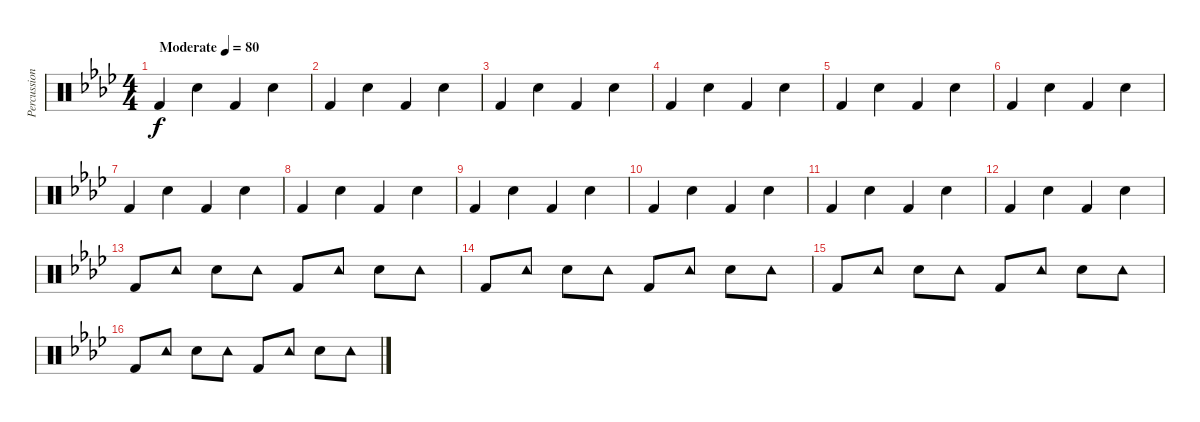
\track ("Percussions" "Percussion") {instrument percussion}
\staff {score}
\articulation defaults
\ts (4 4)
\tempo (80 "Moderate")
\clef neutral
\ks ab "Kick (hit) 2".4{dy f} "Electric Snare (hit)".4 "Kick (hit) 2".4 "Electric Snare (hit)".4
|
"Kick (hit) 2".4 "Electric Snare (hit)".4 "Kick (hit) 2".4 "Electric Snare (hit)".4 |
"Kick (hit) 2".4 "Electric Snare (hit)".4 "Kick (hit) 2".4 "Electric Snare (hit)".4 |
"Kick (hit) 2".4 "Electric Snare (hit)".4 "Kick (hit) 2".4 "Electric Snare (hit)".4 |
"Kick (hit) 2".4 "Electric Snare (hit)".4 "Kick (hit) 2".4 "Electric Snare (hit)".4 |
"Kick (hit) 2".4 "Electric Snare (hit)".4 "Kick (hit) 2".4 "Electric Snare (hit)".4 |
"Kick (hit) 2".4 "Electric Snare (hit)".4 "Kick (hit) 2".4 "Electric Snare (hit)".4 |
"Kick (hit) 2".4 "Electric Snare (hit)".4 "Kick (hit) 2".4 "Electric Snare (hit)".4 |
"Kick (hit) 2".4 "Electric Snare (hit)".4 "Kick (hit) 2".4 "Electric Snare (hit)".4 |
"Kick (hit) 2".4 "Electric Snare (hit)".4 "Kick (hit) 2".4 "Electric Snare (hit)".4 |
"Kick (hit) 2".4 "Electric Snare (hit)".4 "Kick (hit) 2".4 "Electric Snare (hit)".4 |
"Kick (hit) 2".4 "Electric Snare (hit)".4 "Kick (hit) 2".4 "Electric Snare (hit)".4 |
"Kick (hit) 2".8 "Tambourine (hit)".8 "Electric Snare (hit)".8 "Tambourine (hit)".8 "Kick (hit) 2".8 "Tambourine (hit)".8 "Electric Snare (hit)".8 "Tambourine (hit)".8 |
"Kick (hit) 2".8 "Tambourine (hit)".8 "Electric Snare (hit)".8 "Tambourine (hit)".8 "Kick (hit) 2".8 "Tambourine (hit)".8 "Electric Snare (hit)".8 "Tambourine (hit)".8 |
"Kick (hit) 2".8 "Tambourine (hit)".8 "Electric Snare (hit)".8 "Tambourine (hit)".8 "Kick (hit) 2".8 "Tambourine (hit)".8 "Electric Snare (hit)".8 "Tambourine (hit)".8 |
"Kick (hit) 2".8 "Tambourine (hit)".8 "Electric Snare (hit)".8 "Tambourine (hit)".8 "Kick (hit) 2".8 "Tambourine (hit)".8 "Electric Snare (hit)".8 "Tambourine (hit)".8
